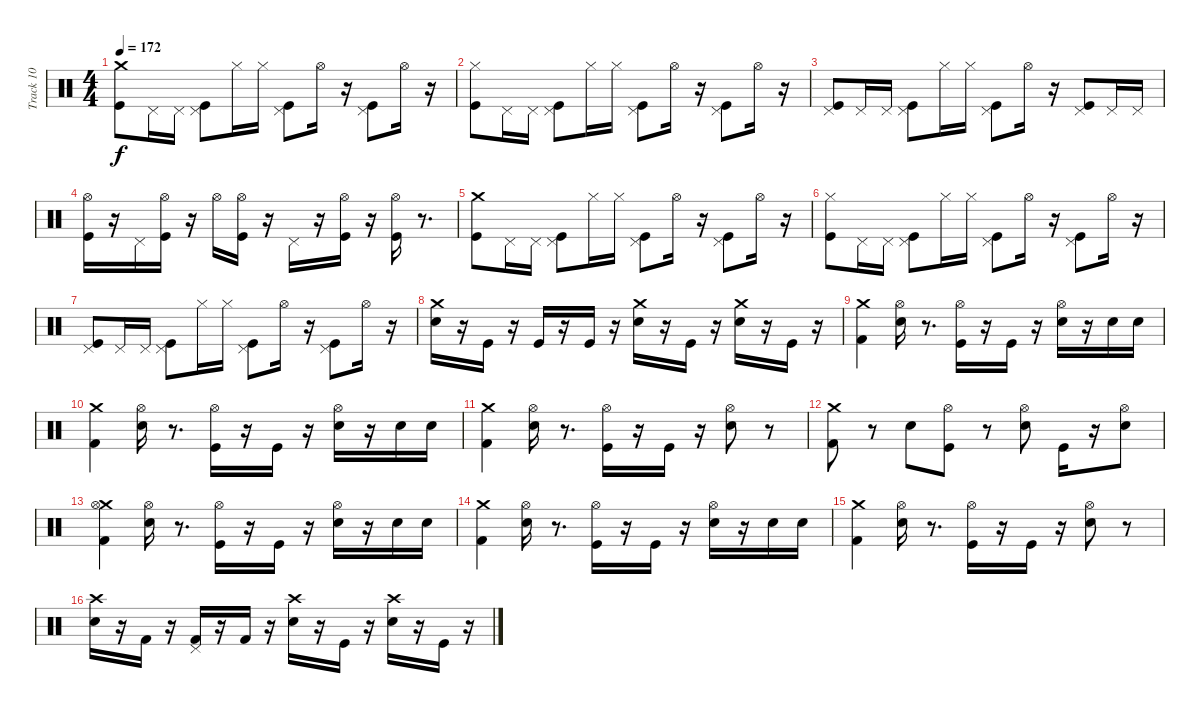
\track ("Track 10" "Track 10") {instrument percussion}
\staff {score}
\articulation defaults
\ts (4 4)
\tempo 172
\clef neutral
\ks c
("Crash medium (hit)" "Kick (hit)").8{dy f} "Pedal Hi-Hat (hit)".16 "Pedal Hi-Hat (hit)".16 ("Pedal Hi-Hat (hit)" "Kick (hit)").8 "Hi-Hat (closed)".16 "Hi-Hat (closed)".16 ("Pedal Hi-Hat (hit)" "Kick (hit)").8 "Hi-Hat (open)".16 r.16 ("Pedal Hi-Hat (hit)" "Kick (hit)").8 "Hi-Hat (open)".16 r.16 |
("Hi-Hat (closed)" "Kick (hit)").8 "Pedal Hi-Hat (hit)".16 "Pedal Hi-Hat (hit)".16 ("Pedal Hi-Hat (hit)" "Kick (hit)").8 "Hi-Hat (closed)".16 "Hi-Hat (closed)".16 ("Pedal Hi-Hat (hit)" "Kick (hit)").8 "Hi-Hat (open)".16 r.16 ("Pedal Hi-Hat (hit)" "Kick (hit)").8 "Hi-Hat (open)".16 r.16 |
("Pedal Hi-Hat (hit)" "Kick (hit)").8 "Pedal Hi-Hat (hit)".16 "Pedal Hi-Hat (hit)".16 ("Pedal Hi-Hat (hit)" "Kick (hit)").8 "Hi-Hat (closed)".16 "Hi-Hat (closed)".16 ("Pedal Hi-Hat (hit)" "Kick (hit)").8 "Hi-Hat (open)".16 r.16 ("Pedal Hi-Hat (hit)" "Kick (hit)").8 "Pedal Hi-Hat (hit)".16 "Pedal Hi-Hat (hit)".16 |
("Hi-Hat (open)" "Kick (hit)").16 r.16 "Pedal Hi-Hat (hit)".16 ("Hi-Hat (open)" "Kick (hit)").16 r.16 "Hi-Hat (open)".16 ("Hi-Hat (open)" "Kick (hit)").16 r.16 "Pedal Hi-Hat (hit)".16 r.16 ("Hi-Hat (open)" "Kick (hit)").16 r.16 ("Hi-Hat (open)" "Kick (hit)").16 r.8{d} |
("Crash medium (hit)" "Kick (hit)").8 "Pedal Hi-Hat (hit)".16 "Pedal Hi-Hat (hit)".16 ("Pedal Hi-Hat (hit)" "Kick (hit)").8 "Hi-Hat (closed)".16 "Hi-Hat (closed)".16 ("Pedal Hi-Hat (hit)" "Kick (hit)").8 "Hi-Hat (open)".16 r.16 ("Pedal Hi-Hat (hit)" "Kick (hit)").8 "Hi-Hat (open)".16 r.16 |
("Hi-Hat (closed)" "Kick (hit)").8 "Pedal Hi-Hat (hit)".16 "Pedal Hi-Hat (hit)".16 ("Pedal Hi-Hat (hit)" "Kick (hit)").8 "Hi-Hat (closed)".16 "Hi-Hat (closed)".16 ("Pedal Hi-Hat (hit)" "Kick (hit)").8 "Hi-Hat (open)".16 r.16 ("Pedal Hi-Hat (hit)" "Kick (hit)").8 "Hi-Hat (open)".16 r.16 |
("Pedal Hi-Hat (hit)" "Kick (hit)").8 "Pedal Hi-Hat (hit)".16 "Pedal Hi-Hat (hit)".16 ("Pedal Hi-Hat (hit)" "Kick (hit)").8 "Hi-Hat (closed)".16 "Hi-Hat (closed)".16 ("Pedal Hi-Hat (hit)" "Kick (hit)").8 "Hi-Hat (open)".16 r.16 ("Pedal Hi-Hat (hit)" "Kick (hit)").8 "Hi-Hat (open)".16 r.16 |
("Crash medium (hit)" "Electric Snare (hit)").16 r.16 "Kick (hit)".16 r.16 "Kick (hit)".16 r.16 "Kick (hit)".16 r.16 ("Crash medium (hit)" "Electric Snare (hit)").16 r.16 "Kick (hit)".16 r.16 ("Crash medium (hit)" "Electric Snare (hit)").16 r.16 "Kick (hit)".16 r.16 |
("Crash medium (hit)" "Kick (hit) 2").4 ("Hi-Hat (open)" "Electric Snare (hit)").16 r.8{d} ("Hi-Hat (open)" "Kick (hit)").16 r.16 "Kick (hit)".16 r.16 ("Hi-Hat (open)" "Electric Snare (hit)").16 r.16 "Electric Snare (hit)".16 "Electric Snare (hit)".16 |
("Crash medium (hit)" "Kick (hit) 2").4 ("Hi-Hat (open)" "Electric Snare (hit)").16 r.8{d} ("Hi-Hat (open)" "Kick (hit)").16 r.16 "Kick (hit)".16 r.16 ("Hi-Hat (open)" "Electric Snare (hit)").16 r.16 "Electric Snare (hit)".16 "Electric Snare (hit)".16 |
("Crash medium (hit)" "Kick (hit) 2").4 ("Hi-Hat (open)" "Electric Snare (hit)").16 r.8{d} ("Hi-Hat (open)" "Kick (hit)").16 r.16 "Kick (hit)".16 r.16 ("Electric Snare (hit)" "Hi-Hat (open)").8 r.8 |
("Crash medium (hit)" "Kick (hit) 2").8 r.8 "Electric Snare (hit)".8 ("Hi-Hat (open)" "Kick (hit)").8 r.8 ("Hi-Hat (open)" "Electric Snare (hit)").8 "Kick (hit)".16 r.16 ("Hi-Hat (open)" "Electric Snare (hit)").8 |
("Crash medium (hit)" "Hi-Hat (open)" "Kick (hit) 2").4 ("Hi-Hat (open)" "Electric Snare (hit)").16 r.8{d} ("Hi-Hat (open)" "Kick (hit)").16 r.16 "Kick (hit)".16 r.16 ("Hi-Hat (open)" "Electric Snare (hit)").16 r.16 "Electric Snare (hit)".16 "Electric Snare (hit)".16 |
("Crash medium (hit)" "Kick (hit) 2").4 ("Hi-Hat (open)" "Electric Snare (hit)").16 r.8{d} ("Hi-Hat (open)" "Kick (hit)").16 r.16 "Kick (hit)".16 r.16 ("Hi-Hat (open)" "Electric Snare (hit)").16 r.16 "Electric Snare (hit)".16 "Electric Snare (hit)".16 |
("Crash medium (hit)" "Kick (hit) 2").4 ("Hi-Hat (open)" "Electric Snare (hit)").16 r.8{d} ("Hi-Hat (open)" "Kick (hit)").16 r.16 "Kick (hit)".16 r.16 ("Electric Snare (hit)" "Hi-Hat (open)").8 r.8 |
("Crash high (hit)" "Electric Snare (hit)").16 r.16 "Kick (hit) 2".16 r.16 ("Pedal Hi-Hat (hit)" "Kick (hit) 2").16 r.16 "Kick (hit) 2".16 r.16 ("Crash high (hit)" "Electric Snare (hit)").16 r.16 "Kick (hit)".16 r.16 ("Crash high (hit)" "Electric Snare (hit)").16 r.16 "Kick (hit)".16 r.16
